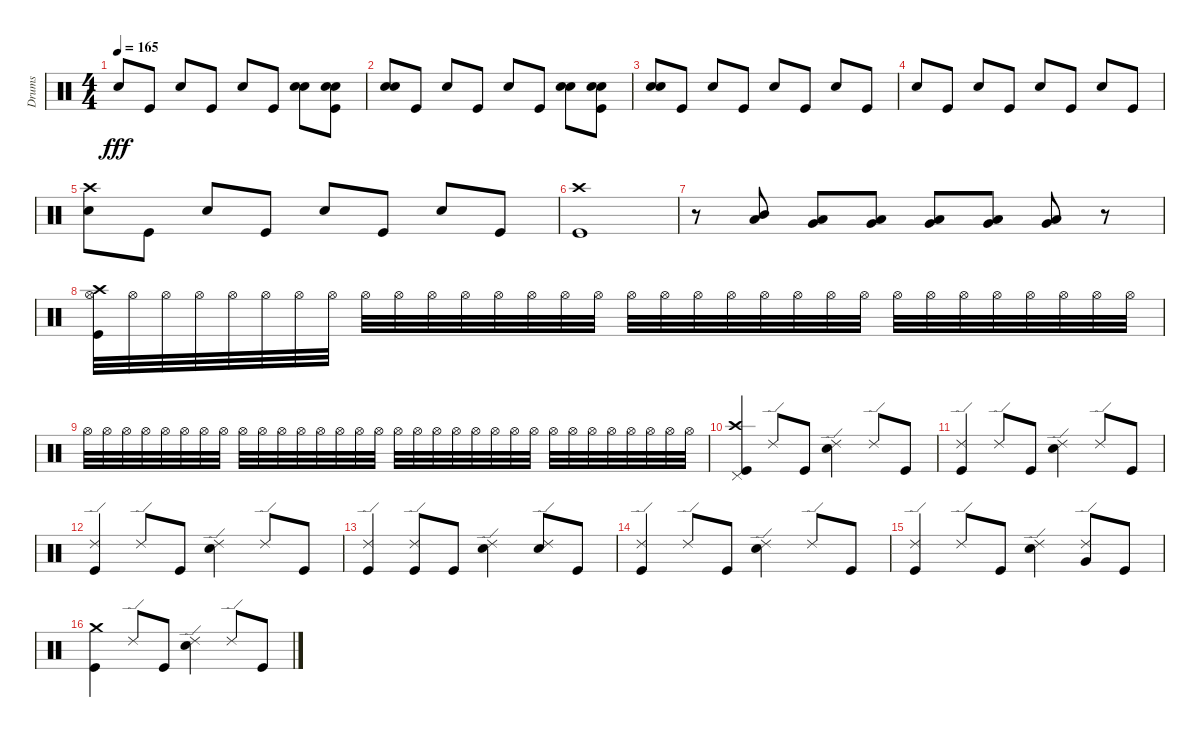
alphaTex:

\track ("Drums" "Drums") {instrument percussion}
\staff {score}
\articulation defaults
\ts (4 4)
\tempo 165
\clef neutral
\ks c "Snare (hit) 2".8{dy fff} "Kick (hit)".8 "Snare (hit) 2".8 "Kick (hit)".8 "Snare (hit) 2".8 "Kick (hit)".8
("Hand Clap (hit)" "Snare (hit) 2").8 ("Hand Clap (hit)" "Snare (hit) 2" "Kick (hit)").8 |
("Hand Clap (hit)" "Snare (hit) 2").8 "Kick (hit)".8 "Snare (hit) 2".8 "Kick (hit)".8 "Snare (hit) 2".8 "Kick (hit)".8 ("Hand Clap (hit)" "Snare (hit) 2").8 ("Hand Clap (hit)" "Snare (hit) 2" "Kick (hit)").8 |
("Hand Clap (hit)" "Snare (hit) 2").8 "Kick (hit)".8 "Snare (hit) 2".8 "Kick (hit)".8 "Snare (hit) 2".8 "Kick (hit)".8 "Snare (hit) 2".8 "Kick (hit)".8 |
"Snare (hit) 2".8 "Kick (hit)".8 "Snare (hit) 2".8 "Kick (hit)".8 "Snare (hit) 2".8 "Kick (hit)".8 "Snare (hit) 2".8 "Kick (hit)".8 |
("Crash high (hit)" "Snare (hit) 2").8 "Kick (hit)".8 "Snare (hit) 2".8 "Kick (hit)".8 "Snare (hit) 2".8 "Kick (hit)".8 "Snare (hit) 2".8 "Kick (hit)".8 |
("Crash high (hit)" "Kick (hit)").1 |
r.8 ("Mid Tom (hit)" "Low Tom (hit)").8 ("Low Tom (hit)" "Very Low Tom (hit)").8 ("Low Tom (hit)" "Very Low Tom (hit)").8 ("Low Tom (hit)" "Very Low Tom (hit)").8 ("Very Low Tom (hit)" "Low Floor Tom (hit)").8 ("Very Low Tom (hit)" "Low Floor Tom (hit)").8 r.8 |
("Hi-Hat (open)" "Crash high (hit)" "Kick (hit)").32 "Hi-Hat (open)".32 "Hi-Hat (open)".32 "Hi-Hat (open)".32 "Hi-Hat (open)".32 "Hi-Hat (open)".32 "Hi-Hat (open)".32 "Hi-Hat (open)".32 "Hi-Hat (open)".32 "Hi-Hat (open)".32 "Hi-Hat (open)".32 "Hi-Hat (open)".32 "Hi-Hat (open)".32 "Hi-Hat (open)".32 "Hi-Hat (open)".32 "Hi-Hat (open)".32 "Hi-Hat (open)".32 "Hi-Hat (open)".32 "Hi-Hat (open)".32 "Hi-Hat (open)".32 "Hi-Hat (open)".32 "Hi-Hat (open)".32 "Hi-Hat (open)".32 "Hi-Hat (open)".32 "Hi-Hat (open)".32 "Hi-Hat (open)".32 "Hi-Hat (open)".32 "Hi-Hat (open)".32 "Hi-Hat (open)".32 "Hi-Hat (open)".32 "Hi-Hat (open)".32 "Hi-Hat (open)".32 |
"Hi-Hat (open)".32 "Hi-Hat (open)".32 "Hi-Hat (open)".32 "Hi-Hat (open)".32 "Hi-Hat (open)".32 "Hi-Hat (open)".32 "Hi-Hat (open)".32 "Hi-Hat (open)".32 "Hi-Hat (open)".32 "Hi-Hat (open)".32 "Hi-Hat (open)".32 "Hi-Hat (open)".32 "Hi-Hat (open)".32 "Hi-Hat (open)".32 "Hi-Hat (open)".32 "Hi-Hat (open)".32 "Hi-Hat (open)".32 "Hi-Hat (open)".32 "Hi-Hat (open)".32 "Hi-Hat (open)".32 "Hi-Hat (open)".32 "Hi-Hat (open)".32 "Hi-Hat (open)".32 "Hi-Hat (open)".32 "Hi-Hat (open)".32 "Hi-Hat (open)".32 "Hi-Hat (open)".32 "Hi-Hat (open)".32 "Hi-Hat (open)".32 "Hi-Hat (open)".32 "Hi-Hat (open)".32 "Hi-Hat (open)".32 |
("Pedal Hi-Hat (hit)" "Crash high (hit)" "Kick (hit)").4 "Ride (edge) 2".8 "Kick (hit)".8 ("Ride (edge) 2" "Snare (hit) 2").4 "Ride (edge) 2".8 "Kick (hit)".8 |
("Ride (edge) 2" "Kick (hit)").4 "Ride (edge) 2".8 "Kick (hit)".8 ("Ride (edge) 2" "Snare (hit) 2").4 "Ride (edge) 2".8 "Kick (hit)".8 |
("Ride (edge) 2" "Kick (hit)").4 "Ride (edge) 2".8 "Kick (hit)".8 ("Ride (edge) 2" "Snare (hit) 2").4 "Ride (edge) 2".8 "Kick (hit)".8 |
("Ride (edge) 2" "Kick (hit)").4 ("Ride (edge) 2" "Kick (hit)").8 "Kick (hit)".8 ("Ride (edge) 2" "Snare (hit) 2").4 ("Ride (edge) 2" "Snare (hit) 2").8 "Kick (hit)".8 |
("Ride (edge) 2" "Kick (hit)").4 "Ride (edge) 2".8 "Kick (hit)".8 ("Ride (edge) 2" "Snare (hit) 2").4 "Ride (edge) 2".8 "Kick (hit)".8 |
("Ride (edge) 2" "Kick (hit)").4 "Ride (edge) 2".8 "Kick (hit)".8 ("Ride (edge) 2" "Snare (hit) 2").4 ("Ride (edge) 2" "Very Low Tom (hit)").8 "Kick (hit)".8 |
("Crash medium (hit)" "Kick (hit)").4 "Ride (edge) 2".8 "Kick (hit)".8 ("Ride (edge) 2" "Snare (hit) 2").4 "Ride (edge) 2".8 "Kick (hit)".8
